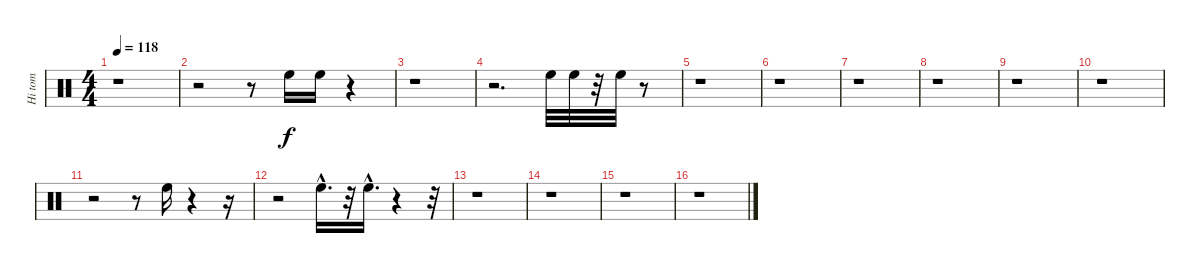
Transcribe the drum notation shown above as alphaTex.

\track ("Hi tom              " "Hi tom    ") {instrument percussion}
\staff {score}
\articulation defaults
\ts (4 4)
\tempo 118
\clef neutral
\ks c
r.1{dy f} |
r.2 r.8 "High Floor Tom (hit)".16 "High Floor Tom (hit)".16 r.4 |
r.1 |
r.2{d} "High Floor Tom (hit)".32 "High Floor Tom (hit)".32 r.32 "High Floor Tom (hit)".32 r.8 |
r.1 |
r.1 |
r.1 |
r.1 |
r.1 |
r.1 |
r.2 r.8 "High Floor Tom (hit)".16 r.4 r.16 |
r.2 "High Floor Tom (hit)"{hac}.16{d} r.32 "High Floor Tom (hit)"{hac}.16{d} r.4 r.32 |
r.1 |
r.1 |
r.1 |
r.1
